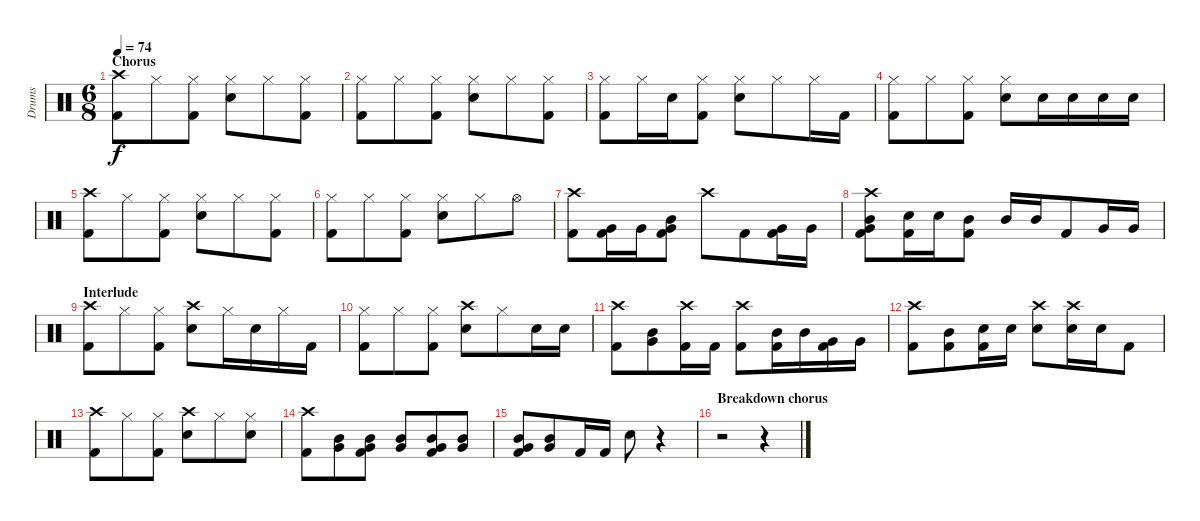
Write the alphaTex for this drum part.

\track ("Drums" "Drums") {instrument percussion}
\staff {score}
\articulation defaults
\ts (6 8)
\section ("" "Chorus")
\tempo 74
\clef neutral
\ks c
("Crash high (hit)" "Kick (hit) 2").8{dy f} "Hi-Hat (closed)".8 ("Hi-Hat (closed)" "Kick (hit) 2").8 ("Hi-Hat (closed)" "Electric Snare (hit)").8 "Hi-Hat (closed)".8 ("Hi-Hat (closed)" "Kick (hit) 2").8 |
("Hi-Hat (closed)" "Kick (hit) 2").8 "Hi-Hat (closed)".8 ("Hi-Hat (closed)" "Kick (hit) 2").8 ("Hi-Hat (closed)" "Electric Snare (hit)").8 "Hi-Hat (closed)".8 ("Hi-Hat (closed)" "Kick (hit) 2").8 |
("Hi-Hat (closed)" "Kick (hit) 2").8 "Hi-Hat (closed)".16 "Electric Snare (hit)".16 ("Hi-Hat (closed)" "Kick (hit) 2").8 ("Hi-Hat (closed)" "Electric Snare (hit)").8 "Hi-Hat (closed)".8 "Hi-Hat (closed)".16 "Kick (hit) 2".16 |
("Hi-Hat (closed)" "Kick (hit) 2").8 "Hi-Hat (closed)".8 ("Hi-Hat (closed)" "Kick (hit) 2").8 ("Hi-Hat (closed)" "Electric Snare (hit)").8 "Electric Snare (hit)".16 "Electric Snare (hit)".16 "Electric Snare (hit)".16 "Electric Snare (hit)".16 |
("Crash high (hit)" "Kick (hit) 2").8 "Hi-Hat (closed)".8 ("Hi-Hat (closed)" "Kick (hit) 2").8 ("Hi-Hat (closed)" "Electric Snare (hit)").8 "Hi-Hat (closed)".8 ("Hi-Hat (closed)" "Kick (hit) 2").8 |
("Hi-Hat (closed)" "Kick (hit) 2").8 "Hi-Hat (closed)".8 ("Hi-Hat (closed)" "Kick (hit) 2").8 ("Hi-Hat (closed)" "Electric Snare (hit)").8 "Hi-Hat (closed)".8 "Hi-Hat (open)".8 |
("Crash high (hit)" "Kick (hit) 2").8 ("Very Low Tom (hit)" "Kick (hit) 2").16 "Very Low Tom (hit)".16 ("Mid Tom (hit)" "Very Low Tom (hit)" "Kick (hit) 2").8 "Crash high (hit)".8 "Kick (hit) 2".8 ("Very Low Tom (hit)" "Kick (hit) 2").16 "Very Low Tom (hit)".16 |
("Crash high (hit)" "Mid Tom (hit)" "Very Low Tom (hit)" "Kick (hit) 2").8 ("Electric Snare (hit)" "Kick (hit) 2").16 "Electric Snare (hit)".16 ("Mid Tom (hit)" "Kick (hit) 2").8 "Mid Tom (hit)".16 "Mid Tom (hit)".16 "Kick (hit) 2".8 "Very Low Tom (hit)".16 "Very Low Tom (hit)".16 |
\section ("" "Interlude")
("Crash high (hit)" "Kick (hit) 2").8 "Hi-Hat (closed)".8 ("Hi-Hat (closed)" "Kick (hit) 2").8 ("Crash high (hit)" "Electric Snare (hit)").8 "Hi-Hat (closed)".16 "Electric Snare (hit)".16 "Hi-Hat (closed)".16 "Kick (hit) 2".16 |
("Hi-Hat (closed)" "Kick (hit) 2").8 "Hi-Hat (closed)".8 ("Hi-Hat (closed)" "Kick (hit) 2").8 ("Crash high (hit)" "Electric Snare (hit)").8 "Hi-Hat (closed)".8 "Electric Snare (hit)".16 "Electric Snare (hit)".16 |
("Crash high (hit)" "Kick (hit) 2").8 ("Mid Tom (hit)" "Very Low Tom (hit)").8 ("Crash high (hit)" "Kick (hit) 2").16 "Kick (hit) 2".16 ("Crash high (hit)" "Kick (hit) 2").8 ("Mid Tom (hit)" "Kick (hit) 2").16 "Mid Tom (hit)".16 ("Very Low Tom (hit)" "Kick (hit) 2").16 "Very Low Tom (hit)".16 |
("Crash high (hit)" "Kick (hit) 2").8 ("Mid Tom (hit)" "Kick (hit) 2").8 ("Electric Snare (hit)" "Kick (hit) 2").16 "Electric Snare (hit)".16 ("Crash high (hit)" "Electric Snare (hit)").8 ("Crash high (hit)" "Electric Snare (hit)").16 "Electric Snare (hit)".16 "Kick (hit) 2".8 |
("Crash high (hit)" "Kick (hit) 2").8 "Hi-Hat (closed)".8 ("Hi-Hat (closed)" "Kick (hit) 2").8 ("Crash high (hit)" "Electric Snare (hit)").8 "Hi-Hat (closed)".8 ("Hi-Hat (closed)" "Electric Snare (hit)").8 |
("Crash high (hit)" "Kick (hit) 2").8 ("Mid Tom (hit)" "Very Low Tom (hit)").8 ("Mid Tom (hit)" "Very Low Tom (hit)" "Kick (hit) 2").8 ("Mid Tom (hit)" "Very Low Tom (hit)").8 ("Mid Tom (hit)" "Very Low Tom (hit)" "Kick (hit) 2").8 ("Mid Tom (hit)" "Very Low Tom (hit)").8 |
("Mid Tom (hit)" "Very Low Tom (hit)" "Kick (hit) 2").8 ("Mid Tom (hit)" "Very Low Tom (hit)").8 "Kick (hit) 2".16 "Kick (hit) 2".16 "Electric Snare (hit)".8 r.4 |
\section ("" "Breakdown chorus")
r.2 r.4
